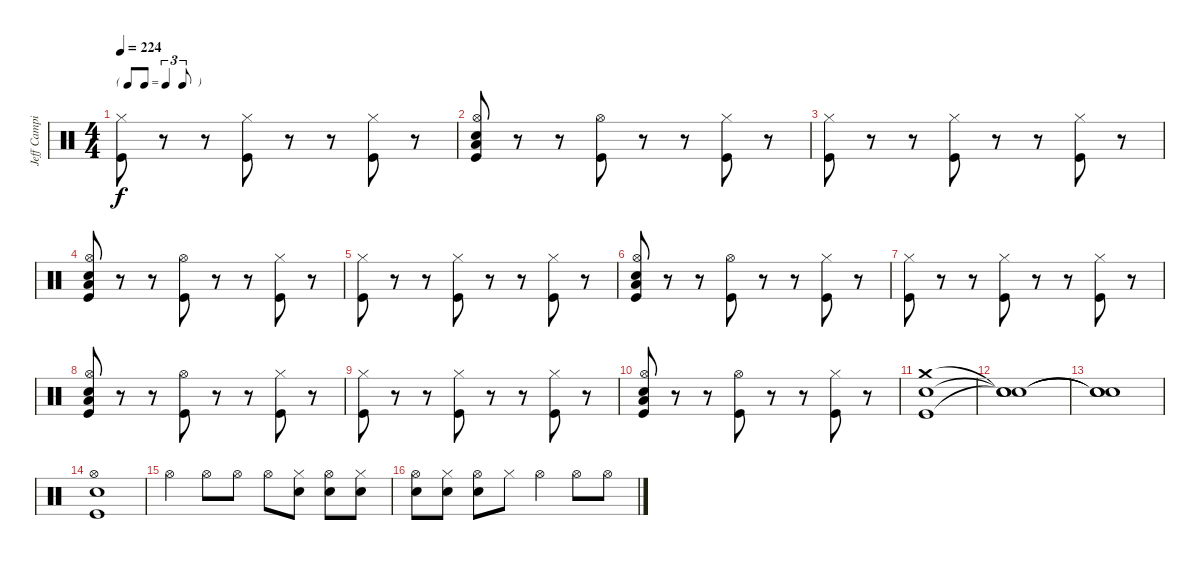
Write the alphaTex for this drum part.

\track ("Jeff Campitelli" "Jeff Campi") {instrument percussion}
\staff {score}
\articulation defaults
\ts (4 4)
\tf triplet8th
\tempo 224
\clef neutral
\ks c
("Hi-Hat (closed)" "Kick (hit)").8{dy f} r.8 r.8 ("Hi-Hat (closed)" "Kick (hit)").8 r.8 r.8 ("Hi-Hat (closed)" "Kick (hit)").8 r.8 |
("Snare (hit) 2" "Hi-Hat (open)" "Low Floor Tom (hit)" "Kick (hit)").8 r.8 r.8 ("Hi-Hat (open)" "Kick (hit)").8 r.8 r.8 ("Hi-Hat (closed)" "Kick (hit)").8 r.8 |
("Hi-Hat (closed)" "Kick (hit)").8 r.8 r.8 ("Hi-Hat (closed)" "Kick (hit)").8 r.8 r.8 ("Hi-Hat (closed)" "Kick (hit)").8 r.8 |
("Snare (hit) 2" "Hi-Hat (open)" "Low Floor Tom (hit)" "Kick (hit)").8 r.8 r.8 ("Hi-Hat (open)" "Kick (hit)").8 r.8 r.8 ("Hi-Hat (closed)" "Kick (hit)").8 r.8 |
("Hi-Hat (closed)" "Kick (hit)").8 r.8 r.8 ("Hi-Hat (closed)" "Kick (hit)").8 r.8 r.8 ("Hi-Hat (closed)" "Kick (hit)").8 r.8 |
("Snare (hit) 2" "Hi-Hat (open)" "Low Floor Tom (hit)" "Kick (hit)").8 r.8 r.8 ("Hi-Hat (open)" "Kick (hit)").8 r.8 r.8 ("Hi-Hat (closed)" "Kick (hit)").8 r.8 |
("Hi-Hat (closed)" "Kick (hit)").8 r.8 r.8 ("Hi-Hat (closed)" "Kick (hit)").8 r.8 r.8 ("Hi-Hat (closed)" "Kick (hit)").8 r.8 |
("Snare (hit) 2" "Hi-Hat (open)" "Low Floor Tom (hit)" "Kick (hit)").8 r.8 r.8 ("Hi-Hat (open)" "Kick (hit)").8 r.8 r.8 ("Hi-Hat (closed)" "Kick (hit)").8 r.8 |
("Hi-Hat (closed)" "Kick (hit)").8 r.8 r.8 ("Hi-Hat (closed)" "Kick (hit)").8 r.8 r.8 ("Hi-Hat (closed)" "Kick (hit)").8 r.8 |
("Snare (hit) 2" "Hi-Hat (open)" "Low Floor Tom (hit)" "Kick (hit)").8 r.8 r.8 ("Hi-Hat (open)" "Kick (hit)").8 r.8 r.8 ("Hi-Hat (closed)" "Kick (hit)").8 r.8 |
("Crash medium (hit)" "Snare (hit) 2" "Kick (hit)").1 |
("Snare (hit)"{t} "Snare (hit)"{t} "Snare (hit)"{t}).1 |
("Snare (hit)"{t} "Snare (hit)"{t} "Snare (hit)"{t}).1 |
("Snare (hit) 2" "Hi-Hat (open)" "Kick (hit)").1 |
"Hi-Hat (open)".4 "Hi-Hat (open)".8 "Hi-Hat (open)".8 "Hi-Hat (open)".8 ("Hi-Hat (closed)" "Snare (hit) 2").8 ("Snare (hit) 2" "Hi-Hat (open)").8 ("Hi-Hat (closed)" "Snare (hit) 2").8 |
("Snare (hit) 2" "Hi-Hat (open)").8 ("Snare (hit) 2" "Hi-Hat (closed)").8 ("Snare (hit) 2" "Hi-Hat (open)").8 "Hi-Hat (closed)".8 "Hi-Hat (open)".4 "Hi-Hat (open)".8 "Hi-Hat (open)".8
